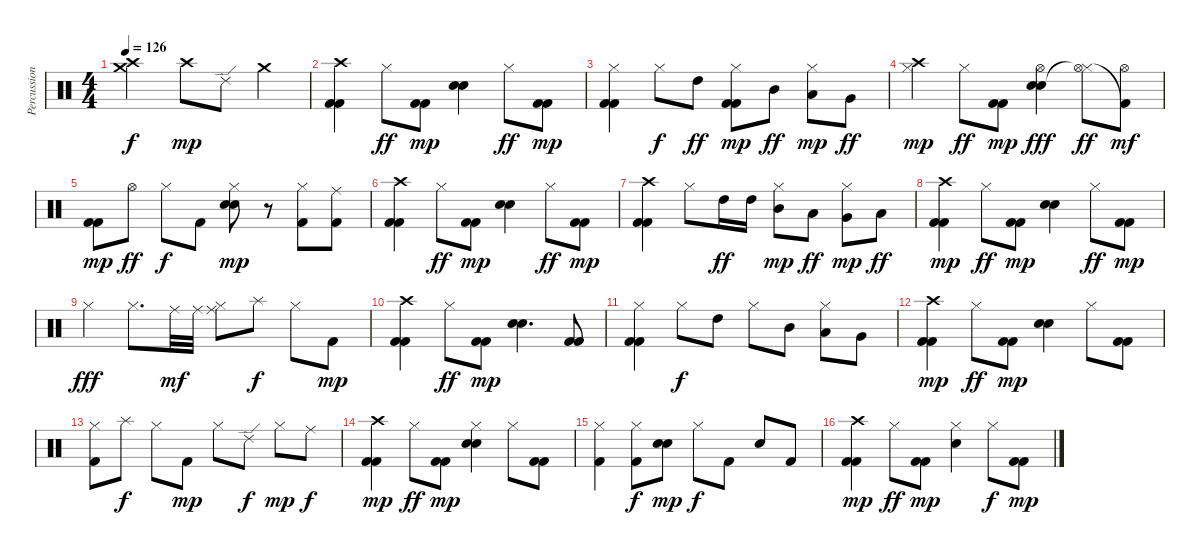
\track ("Percussion" "Percussion") {instrument percussion}
\staff {score}
\articulation defaults
\ts (4 4)
\tempo 126
\clef neutral
\ks c
("Crash medium (hit)" "Crash high (hit)").2{dy f} "Crash high (hit)".8{dy mp} "Ride (edge) 2".8 "Crash medium (hit)".4 |
("Crash high (hit)" "Kick (hit) 2" "Kick (hit) 2").4 "Hi-Hat (closed)".8{dy ff} ("Kick (hit) 2" "Kick (hit) 2").8{dy mp} ("Electric Snare (hit)" "Electric Snare (hit)").4 "Hi-Hat (closed)".8{dy ff} ("Kick (hit) 2" "Kick (hit) 2").8{dy mp} |
("Hi-Hat (closed)" "Kick (hit) 2" "Kick (hit) 2").4 "Hi-Hat (closed)".8{dy f} "High Tom (hit)".8{dy ff} ("Hi-Hat (closed)" "Kick (hit) 2" "Kick (hit) 2").8{dy mp} "Mid Tom (hit)".8{dy ff} ("Low Tom (hit)" "Hi-Hat (closed)").8{dy mp} "Very Low Tom (hit)".8{dy ff} |
("Crash high (hit)" "Hi-Hat (closed)").4{dy mp} "Hi-Hat (closed)".8{dy ff} ("Kick (hit) 2" "Kick (hit) 2").8{dy mp} ("Electric Snare (hit)" "Electric Snare (hit)" "Hi-Hat (open)").4{dy fff} ("Hi-Hat (closed)" "Hi-Hat (open)"{t}).8{dy ff} ("Hi-Hat (open)" "Kick (hit) 2"{t}).8{dy mf} |
("Kick (hit) 2" "Kick (hit) 2").8{dy mp} "Hi-Hat (open)".8{dy ff} "Hi-Hat (closed)".8{dy f} "Kick (hit) 2".8 ("Hi-Hat (closed)" "Electric Snare (hit)" "Electric Snare (hit)").8{dy mp} r.8 ("Hi-Hat (closed)" "Kick (hit) 2").8 ("Ride (middle)" "Kick (hit) 2").8 |
("Crash high (hit)" "Kick (hit) 2" "Kick (hit) 2").4 "Hi-Hat (closed)".8{dy ff} ("Kick (hit) 2" "Kick (hit) 2").8{dy mp} ("Electric Snare (hit)" "Electric Snare (hit)").4 "Hi-Hat (closed)".8{dy ff} ("Kick (hit) 2" "Kick (hit) 2").8{dy mp} |
("Crash high (hit)" "Kick (hit) 2" "Kick (hit) 2").4 "Hi-Hat (closed)".8 "High Tom (hit)".16{dy ff} "High Tom (hit)".16 ("Mid Tom (hit)" "Hi-Hat (closed)").8{dy mp} "Low Tom (hit)".8{dy ff} ("Very Low Tom (hit)" "Hi-Hat (closed)").8{dy mp} "Low Floor Tom (hit)".8{dy ff} |
("Crash high (hit)" "Kick (hit) 2" "Kick (hit) 2").4{dy mp} "Hi-Hat (closed)".8{dy ff} ("Kick (hit) 2" "Kick (hit) 2").8{dy mp} ("Electric Snare (hit)" "Electric Snare (hit)").4 "Hi-Hat (closed)".8{dy ff} ("Kick (hit) 2" "Kick (hit) 2").8{dy mp} |
"Hi-Hat (closed)".4{dy fff} "Hi-Hat (closed)".8{d} "Ride (middle)".32{dy mf} "Ride (middle)".32 ("Ride (middle)" "Hi-Hat (closed)").8 "Splash (hit)".8{dy f} "Hi-Hat (closed)".8 "Kick (hit) 2".8{dy mp} |
("Crash high (hit)" "Kick (hit) 2" "Kick (hit) 2").4 "Hi-Hat (closed)".8{dy ff} ("Kick (hit) 2" "Kick (hit) 2").8{dy mp} ("Electric Snare (hit)" "Electric Snare (hit)").4{d} ("Kick (hit) 2" "Kick (hit) 2").8 |
("Hi-Hat (closed)" "Kick (hit) 2" "Kick (hit) 2").4 "Hi-Hat (closed)".8{dy f} "High Tom (hit)".8 "Hi-Hat (closed)".8 "Mid Tom (hit)".8 ("Low Tom (hit)" "Hi-Hat (closed)").8 "Very Low Tom (hit)".8 |
("Crash high (hit)" "Kick (hit) 2" "Kick (hit) 2").4{dy mp} "Hi-Hat (closed)".8{dy ff} ("Kick (hit) 2" "Kick (hit) 2").8{dy mp} ("Electric Snare (hit)" "Electric Snare (hit)").4 "Hi-Hat (closed)".8 ("Kick (hit) 2" "Kick (hit) 2").8 |
("Hi-Hat (closed)" "Kick (hit) 2").8 "Splash (hit)".8{dy f} "Hi-Hat (closed)".8 "Kick (hit) 2".8{dy mp} "Hi-Hat (closed)".8 "Ride (edge) 2".8{dy f} "Hi-Hat (closed)".8{dy mp} "Ride (middle)".8{dy f} |
("Crash high (hit)" "Kick (hit) 2" "Kick (hit) 2").4{dy mp} "Hi-Hat (closed)".8{dy ff} ("Kick (hit) 2" "Kick (hit) 2").8{dy mp} ("Hi-Hat (closed)" "Electric Snare (hit)" "Electric Snare (hit)").4 "Hi-Hat (closed)".8 ("Kick (hit) 2" "Kick (hit) 2").8 |
("Hi-Hat (closed)" "Kick (hit) 2").4 ("Hi-Hat (closed)" "Kick (hit) 2").8{dy f} ("Electric Snare (hit)" "Electric Snare (hit)").8{dy mp} "Hi-Hat (closed)".8{dy f} "Kick (hit) 2".8 "Electric Snare (hit)".8 "Kick (hit) 2".8 |
("Crash high (hit)" "Kick (hit) 2" "Kick (hit) 2").4{dy mp} "Hi-Hat (closed)".8{dy ff} ("Kick (hit) 2" "Kick (hit) 2").8{dy mp} ("Hi-Hat (closed)" "Electric Snare (hit)").4 "Hi-Hat (closed)".8{dy f} ("Kick (hit) 2" "Kick (hit) 2").8{dy mp}
